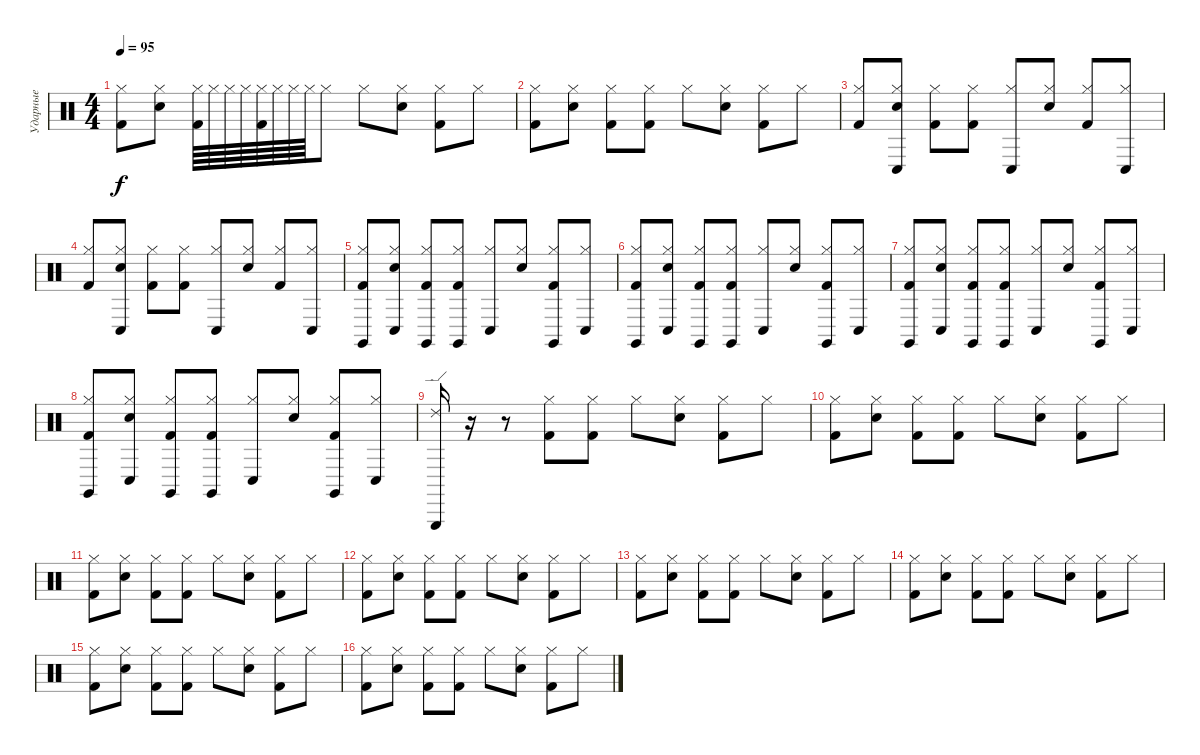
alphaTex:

\track ("Ударные" "Ударные") {instrument percussion}
\staff {score}
\articulation defaults
\ts (4 4)
\tempo 95
\clef neutral
\ks c
("Kick (hit) 2" "Hi-Hat (closed)").8{dy f} ("Electric Snare (hit)" "Hi-Hat (closed)").8 ("Kick (hit) 2" "Hi-Hat (closed)").64 "Hi-Hat (closed)".64 "Hi-Hat (closed)".64 "Hi-Hat (closed)".64 ("Kick (hit) 2" "Hi-Hat (closed)").64 "Hi-Hat (closed)".64 "Hi-Hat (closed)".64 "Hi-Hat (closed)".64 "Hi-Hat (closed)".8 "Hi-Hat (closed)".8 ("Electric Snare (hit)" "Hi-Hat (closed)").8 ("Kick (hit) 2" "Hi-Hat (closed)").8 "Hi-Hat (closed)".8 |
("Kick (hit) 2" "Hi-Hat (closed)").8 ("Electric Snare (hit)" "Hi-Hat (closed)").8 ("Kick (hit) 2" "Hi-Hat (closed)").8 ("Kick (hit) 2" "Hi-Hat (closed)").8 "Hi-Hat (closed)".8 ("Electric Snare (hit)" "Hi-Hat (closed)").8 ("Kick (hit) 2" "Hi-Hat (closed)").8 "Hi-Hat (closed)".8 |
("Kick (hit) 2" "Hi-Hat (closed)").8 ("Conga low (hit)" "Electric Snare (hit)" "Hi-Hat (closed)").8 ("Kick (hit) 2" "Hi-Hat (closed)").8 ("Kick (hit) 2" "Hi-Hat (closed)").8 ("Conga low (hit)" "Hi-Hat (closed)").8 ("Electric Snare (hit)" "Hi-Hat (closed)").8 ("Kick (hit) 2" "Hi-Hat (closed)").8 ("Conga low (hit)" "Hi-Hat (closed)").8 |
("Kick (hit) 2" "Hi-Hat (closed)").8 ("Conga low (hit)" "Electric Snare (hit)" "Hi-Hat (closed)").8 ("Kick (hit) 2" "Hi-Hat (closed)").8 ("Kick (hit) 2" "Hi-Hat (closed)").8 ("Conga low (hit)" "Hi-Hat (closed)").8 ("Electric Snare (hit)" "Hi-Hat (closed)").8 ("Kick (hit) 2" "Hi-Hat (closed)").8 ("Conga low (hit)" "Hi-Hat (closed)").8 |
("Claves (hit)" "Kick (hit) 2" "Hi-Hat (closed)").8 ("Conga low (hit)" "Electric Snare (hit)" "Hi-Hat (closed)").8 ("Claves (hit)" "Kick (hit) 2" "Hi-Hat (closed)").8 ("Claves (hit)" "Kick (hit) 2" "Hi-Hat (closed)").8 ("Conga low (hit)" "Hi-Hat (closed)").8 ("Electric Snare (hit)" "Hi-Hat (closed)").8 ("Claves (hit)" "Kick (hit) 2" "Hi-Hat (closed)").8 ("Conga low (hit)" "Hi-Hat (closed)").8 |
("Claves (hit)" "Kick (hit) 2" "Hi-Hat (closed)").8 ("Conga low (hit)" "Electric Snare (hit)" "Hi-Hat (closed)").8 ("Claves (hit)" "Kick (hit) 2" "Hi-Hat (closed)").8 ("Claves (hit)" "Kick (hit) 2" "Hi-Hat (closed)").8 ("Conga low (hit)" "Hi-Hat (closed)").8 ("Electric Snare (hit)" "Hi-Hat (closed)").8 ("Claves (hit)" "Kick (hit) 2" "Hi-Hat (closed)").8 ("Conga low (hit)" "Hi-Hat (closed)").8 |
("Claves (hit)" "Kick (hit) 2" "Hi-Hat (closed)").8 ("Conga low (hit)" "Electric Snare (hit)" "Hi-Hat (closed)").8 ("Claves (hit)" "Kick (hit) 2" "Hi-Hat (closed)").8 ("Claves (hit)" "Kick (hit) 2" "Hi-Hat (closed)").8 ("Conga low (hit)" "Hi-Hat (closed)").8 ("Electric Snare (hit)" "Hi-Hat (closed)").8 ("Claves (hit)" "Kick (hit) 2" "Hi-Hat (closed)").8 ("Conga low (hit)" "Hi-Hat (closed)").8 |
("Claves (hit)" "Kick (hit) 2" "Hi-Hat (closed)").8 ("Conga low (hit)" "Electric Snare (hit)" "Hi-Hat (closed)").8 ("Claves (hit)" "Kick (hit) 2" "Hi-Hat (closed)").8 ("Claves (hit)" "Kick (hit) 2" "Hi-Hat (closed)").8 ("Conga low (hit)" "Hi-Hat (closed)").8 ("Electric Snare (hit)" "Hi-Hat (closed)").8 ("Claves (hit)" "Kick (hit) 2" "Hi-Hat (closed)").8 ("Conga low (hit)" "Hi-Hat (closed)").8 |
("Ride (edge) 2" "Triangle (hit)").16 r.16 r.8 ("Kick (hit) 2" "Hi-Hat (closed)").8 ("Kick (hit) 2" "Hi-Hat (closed)").8 "Hi-Hat (closed)".8 ("Electric Snare (hit)" "Hi-Hat (closed)").8 ("Kick (hit) 2" "Hi-Hat (closed)").8 "Hi-Hat (closed)".8 |
("Kick (hit) 2" "Hi-Hat (closed)").8 ("Electric Snare (hit)" "Hi-Hat (closed)").8 ("Kick (hit) 2" "Hi-Hat (closed)").8 ("Kick (hit) 2" "Hi-Hat (closed)").8 "Hi-Hat (closed)".8 ("Electric Snare (hit)" "Hi-Hat (closed)").8 ("Kick (hit) 2" "Hi-Hat (closed)").8 "Hi-Hat (closed)".8 |
("Kick (hit) 2" "Hi-Hat (closed)").8 ("Electric Snare (hit)" "Hi-Hat (closed)").8 ("Kick (hit) 2" "Hi-Hat (closed)").8 ("Kick (hit) 2" "Hi-Hat (closed)").8 "Hi-Hat (closed)".8 ("Electric Snare (hit)" "Hi-Hat (closed)").8 ("Kick (hit) 2" "Hi-Hat (closed)").8 "Hi-Hat (closed)".8 |
("Kick (hit) 2" "Hi-Hat (closed)").8 ("Electric Snare (hit)" "Hi-Hat (closed)").8 ("Kick (hit) 2" "Hi-Hat (closed)").8 ("Kick (hit) 2" "Hi-Hat (closed)").8 "Hi-Hat (closed)".8 ("Electric Snare (hit)" "Hi-Hat (closed)").8 ("Kick (hit) 2" "Hi-Hat (closed)").8 "Hi-Hat (closed)".8 |
("Kick (hit) 2" "Hi-Hat (closed)").8 ("Electric Snare (hit)" "Hi-Hat (closed)").8 ("Kick (hit) 2" "Hi-Hat (closed)").8 ("Kick (hit) 2" "Hi-Hat (closed)").8 "Hi-Hat (closed)".8 ("Electric Snare (hit)" "Hi-Hat (closed)").8 ("Kick (hit) 2" "Hi-Hat (closed)").8 "Hi-Hat (closed)".8 |
("Kick (hit) 2" "Hi-Hat (closed)").8 ("Electric Snare (hit)" "Hi-Hat (closed)").8 ("Kick (hit) 2" "Hi-Hat (closed)").8 ("Kick (hit) 2" "Hi-Hat (closed)").8 "Hi-Hat (closed)".8 ("Electric Snare (hit)" "Hi-Hat (closed)").8 ("Kick (hit) 2" "Hi-Hat (closed)").8 "Hi-Hat (closed)".8 |
("Kick (hit) 2" "Hi-Hat (closed)").8 ("Electric Snare (hit)" "Hi-Hat (closed)").8 ("Kick (hit) 2" "Hi-Hat (closed)").8 ("Kick (hit) 2" "Hi-Hat (closed)").8 "Hi-Hat (closed)".8 ("Electric Snare (hit)" "Hi-Hat (closed)").8 ("Kick (hit) 2" "Hi-Hat (closed)").8 "Hi-Hat (closed)".8 |
("Kick (hit) 2" "Hi-Hat (closed)").8 ("Electric Snare (hit)" "Hi-Hat (closed)").8 ("Kick (hit) 2" "Hi-Hat (closed)").8 ("Kick (hit) 2" "Hi-Hat (closed)").8 "Hi-Hat (closed)".8 ("Electric Snare (hit)" "Hi-Hat (closed)").8 ("Kick (hit) 2" "Hi-Hat (closed)").8 "Hi-Hat (closed)".8
